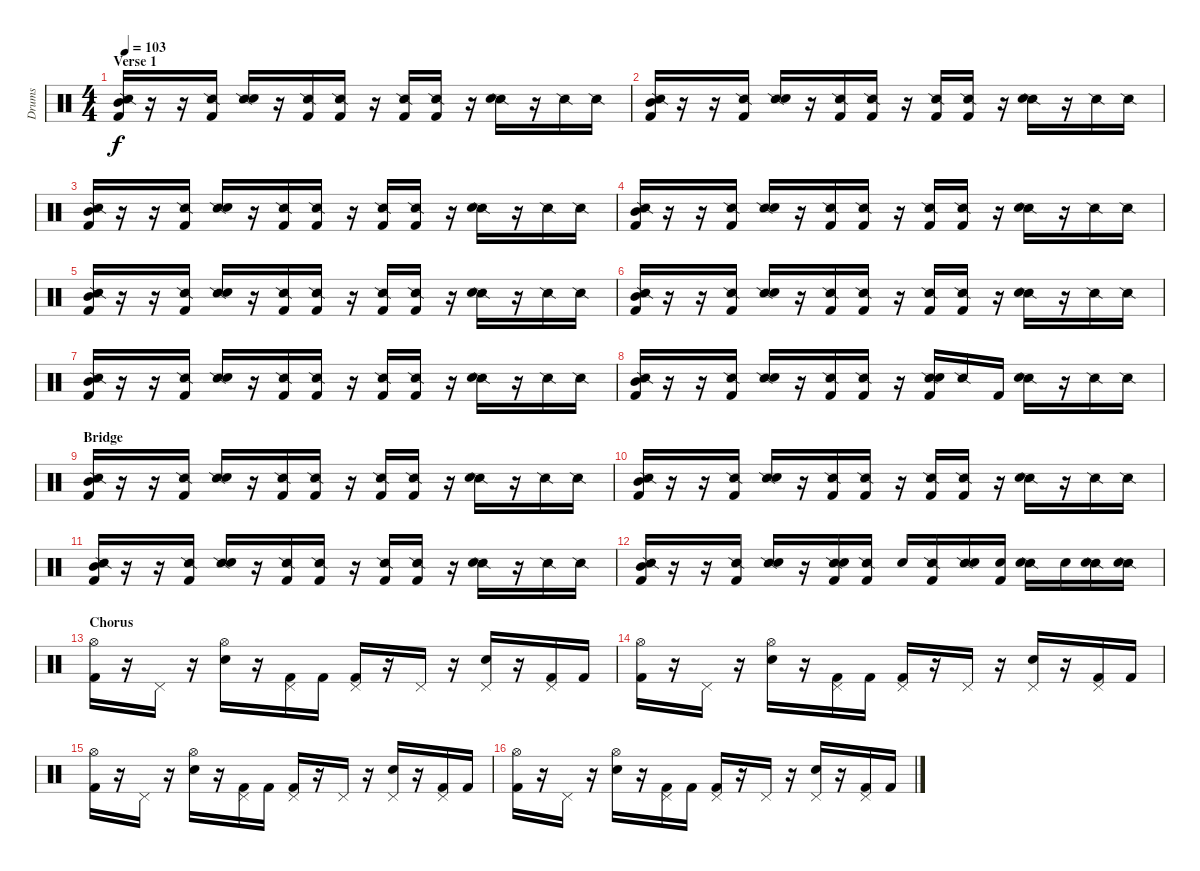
\track ("Drums" "Drums") {instrument percussion}
\staff {score}
\articulation defaults
\ts (4 4)
\section ("" "Verse 1")
\tempo 103
\clef neutral
\ks c
("Snare (side stick) 2" "Mid Tom (hit)" "Kick (hit) 2").16{dy f volume 11} r.16 r.16 ("Snare (side stick) 2" "Kick (hit) 2").16 ("Snare (side stick) 2" "Electric Snare (hit)").16 r.16 ("Snare (side stick) 2" "Kick (hit) 2").16 ("Snare (side stick) 2" "Kick (hit) 2").16 r.16 ("Snare (side stick) 2" "Kick (hit) 2").16 ("Snare (side stick) 2" "Kick (hit) 2").16 r.16 ("Snare (side stick) 2" "Electric Snare (hit)").16 r.16 "Snare (side stick) 2".16 "Snare (side stick) 2".16 |
("Snare (side stick) 2" "Mid Tom (hit)" "Kick (hit) 2").16{volume 11} r.16 r.16 ("Snare (side stick) 2" "Kick (hit) 2").16 ("Snare (side stick) 2" "Electric Snare (hit)").16 r.16 ("Snare (side stick) 2" "Kick (hit) 2").16 ("Snare (side stick) 2" "Kick (hit) 2").16 r.16 ("Snare (side stick) 2" "Kick (hit) 2").16 ("Snare (side stick) 2" "Kick (hit) 2").16 r.16 ("Snare (side stick) 2" "Electric Snare (hit)").16 r.16 "Snare (side stick) 2".16 "Snare (side stick) 2".16 |
("Snare (side stick) 2" "Mid Tom (hit)" "Kick (hit) 2").16{volume 11} r.16 r.16 ("Snare (side stick) 2" "Kick (hit) 2").16 ("Snare (side stick) 2" "Electric Snare (hit)").16 r.16 ("Snare (side stick) 2" "Kick (hit) 2").16 ("Snare (side stick) 2" "Kick (hit) 2").16 r.16 ("Snare (side stick) 2" "Kick (hit) 2").16 ("Snare (side stick) 2" "Kick (hit) 2").16 r.16 ("Snare (side stick) 2" "Electric Snare (hit)").16 r.16 "Snare (side stick) 2".16 "Snare (side stick) 2".16 |
("Snare (side stick) 2" "Mid Tom (hit)" "Kick (hit) 2").16{volume 11} r.16 r.16 ("Snare (side stick) 2" "Kick (hit) 2").16 ("Snare (side stick) 2" "Electric Snare (hit)").16 r.16 ("Snare (side stick) 2" "Kick (hit) 2").16 ("Snare (side stick) 2" "Kick (hit) 2").16 r.16 ("Snare (side stick) 2" "Kick (hit) 2").16 ("Snare (side stick) 2" "Kick (hit) 2").16 r.16 ("Snare (side stick) 2" "Electric Snare (hit)").16 r.16 "Snare (side stick) 2".16 "Snare (side stick) 2".16 |
("Snare (side stick) 2" "Mid Tom (hit)" "Kick (hit) 2").16{volume 11} r.16 r.16 ("Snare (side stick) 2" "Kick (hit) 2").16 ("Snare (side stick) 2" "Electric Snare (hit)").16 r.16 ("Snare (side stick) 2" "Kick (hit) 2").16 ("Snare (side stick) 2" "Kick (hit) 2").16 r.16 ("Snare (side stick) 2" "Kick (hit) 2").16 ("Snare (side stick) 2" "Kick (hit) 2").16 r.16 ("Snare (side stick) 2" "Electric Snare (hit)").16 r.16 "Snare (side stick) 2".16 "Snare (side stick) 2".16 |
("Snare (side stick) 2" "Mid Tom (hit)" "Kick (hit) 2").16{volume 11} r.16 r.16 ("Snare (side stick) 2" "Kick (hit) 2").16 ("Snare (side stick) 2" "Electric Snare (hit)").16 r.16 ("Snare (side stick) 2" "Kick (hit) 2").16 ("Snare (side stick) 2" "Kick (hit) 2").16 r.16 ("Snare (side stick) 2" "Kick (hit) 2").16 ("Snare (side stick) 2" "Kick (hit) 2").16 r.16 ("Snare (side stick) 2" "Electric Snare (hit)").16 r.16 "Snare (side stick) 2".16 "Snare (side stick) 2".16 |
("Snare (side stick) 2" "Mid Tom (hit)" "Kick (hit) 2").16{volume 11} r.16 r.16 ("Snare (side stick) 2" "Kick (hit) 2").16 ("Snare (side stick) 2" "Electric Snare (hit)").16 r.16 ("Snare (side stick) 2" "Kick (hit) 2").16 ("Snare (side stick) 2" "Kick (hit) 2").16 r.16 ("Snare (side stick) 2" "Kick (hit) 2").16 ("Snare (side stick) 2" "Kick (hit) 2").16 r.16 ("Snare (side stick) 2" "Electric Snare (hit)").16 r.16 "Snare (side stick) 2".16 "Snare (side stick) 2".16 |
("Snare (side stick) 2" "Mid Tom (hit)" "Kick (hit) 2").16{volume 11} r.16 r.16 ("Snare (side stick) 2" "Kick (hit) 2").16 ("Snare (side stick) 2" "Electric Snare (hit)").16 r.16 ("Snare (side stick) 2" "Kick (hit) 2").16 ("Snare (side stick) 2" "Kick (hit) 2").16 r.16 ("Snare (side stick) 2" "Electric Snare (hit)" "Kick (hit) 2").16 "Snare (side stick) 2".16 "Kick (hit) 2".16 ("Snare (side stick) 2" "Electric Snare (hit)").16 r.16 "Snare (side stick) 2".16 "Snare (side stick) 2".16 |
\section ("" "Bridge")
("Snare (side stick) 2" "Mid Tom (hit)" "Kick (hit) 2").16{volume 11} r.16 r.16 ("Snare (side stick) 2" "Kick (hit) 2").16 ("Snare (side stick) 2" "Electric Snare (hit)").16 r.16 ("Snare (side stick) 2" "Kick (hit) 2").16 ("Snare (side stick) 2" "Kick (hit) 2").16 r.16 ("Snare (side stick) 2" "Kick (hit) 2").16 ("Snare (side stick) 2" "Kick (hit) 2").16 r.16 ("Snare (side stick) 2" "Electric Snare (hit)").16 r.16 "Snare (side stick) 2".16 "Snare (side stick) 2".16 |
("Snare (side stick) 2" "Mid Tom (hit)" "Kick (hit) 2").16{volume 11} r.16 r.16 ("Snare (side stick) 2" "Kick (hit) 2").16 ("Snare (side stick) 2" "Electric Snare (hit)").16 r.16 ("Snare (side stick) 2" "Kick (hit) 2").16 ("Snare (side stick) 2" "Kick (hit) 2").16 r.16 ("Snare (side stick) 2" "Kick (hit) 2").16 ("Snare (side stick) 2" "Kick (hit) 2").16 r.16 ("Snare (side stick) 2" "Electric Snare (hit)").16 r.16 "Snare (side stick) 2".16 "Snare (side stick) 2".16 |
("Snare (side stick) 2" "Mid Tom (hit)" "Kick (hit) 2").16{volume 11} r.16 r.16 ("Snare (side stick) 2" "Kick (hit) 2").16 ("Snare (side stick) 2" "Electric Snare (hit)").16 r.16 ("Snare (side stick) 2" "Kick (hit) 2").16 ("Snare (side stick) 2" "Kick (hit) 2").16 r.16 ("Snare (side stick) 2" "Kick (hit) 2").16 ("Snare (side stick) 2" "Kick (hit) 2").16 r.16 ("Snare (side stick) 2" "Electric Snare (hit)").16 r.16 "Snare (side stick) 2".16 "Snare (side stick) 2".16 |
("Snare (side stick) 2" "Mid Tom (hit)" "Kick (hit) 2").16{volume 11} r.16 r.16 ("Snare (side stick) 2" "Kick (hit) 2").16 ("Snare (side stick) 2" "Electric Snare (hit)").16 r.16 ("Snare (side stick) 2" "Electric Snare (hit)" "Kick (hit) 2").16 ("Snare (side stick) 2" "Kick (hit) 2").16 "Electric Snare (hit)".16 ("Snare (side stick) 2" "Kick (hit) 2").16 ("Snare (side stick) 2" "Snare (hit) 2").16 ("Snare (hit) 2" "Kick (hit) 2").16 ("Snare (side stick) 2" "Snare (hit) 2").16 "Snare (hit) 2".16 ("Snare (side stick) 2" "Snare (hit) 2").16 ("Snare (side stick) 2" "Snare (hit) 2").16 |
\section ("" "Chorus")
("Hi-Hat (open)" "Kick (hit) 2").16 r.16 "Pedal Hi-Hat (hit)".16 r.16 ("Hi-Hat (open)" "Electric Snare (hit)").16 r.16 ("Pedal Hi-Hat (hit)" "Kick (hit) 2").16 "Kick (hit) 2".16 ("Pedal Hi-Hat (hit)" "Kick (hit) 2").16 r.16 "Pedal Hi-Hat (hit)".16 r.16 ("Pedal Hi-Hat (hit)" "Electric Snare (hit)").16 r.16 ("Pedal Hi-Hat (hit)" "Kick (hit) 2").16 "Kick (hit) 2".16 |
("Hi-Hat (open)" "Kick (hit) 2").16 r.16 "Pedal Hi-Hat (hit)".16 r.16 ("Hi-Hat (open)" "Electric Snare (hit)").16 r.16 ("Pedal Hi-Hat (hit)" "Kick (hit) 2").16 "Kick (hit) 2".16 ("Pedal Hi-Hat (hit)" "Kick (hit) 2").16 r.16 "Pedal Hi-Hat (hit)".16 r.16 ("Pedal Hi-Hat (hit)" "Electric Snare (hit)").16 r.16 ("Pedal Hi-Hat (hit)" "Kick (hit) 2").16 "Kick (hit) 2".16 |
("Hi-Hat (open)" "Kick (hit) 2").16 r.16 "Pedal Hi-Hat (hit)".16 r.16 ("Hi-Hat (open)" "Electric Snare (hit)").16 r.16 ("Pedal Hi-Hat (hit)" "Kick (hit) 2").16 "Kick (hit) 2".16 ("Pedal Hi-Hat (hit)" "Kick (hit) 2").16 r.16 "Pedal Hi-Hat (hit)".16 r.16 ("Pedal Hi-Hat (hit)" "Electric Snare (hit)").16 r.16 ("Pedal Hi-Hat (hit)" "Kick (hit) 2").16 "Kick (hit) 2".16 |
("Hi-Hat (open)" "Kick (hit) 2").16 r.16 "Pedal Hi-Hat (hit)".16 r.16 ("Hi-Hat (open)" "Electric Snare (hit)").16 r.16 ("Pedal Hi-Hat (hit)" "Kick (hit) 2").16 "Kick (hit) 2".16 ("Pedal Hi-Hat (hit)" "Kick (hit) 2").16 r.16 "Pedal Hi-Hat (hit)".16 r.16 ("Pedal Hi-Hat (hit)" "Electric Snare (hit)").16 r.16 ("Pedal Hi-Hat (hit)" "Kick (hit) 2").16 "Kick (hit) 2".16
